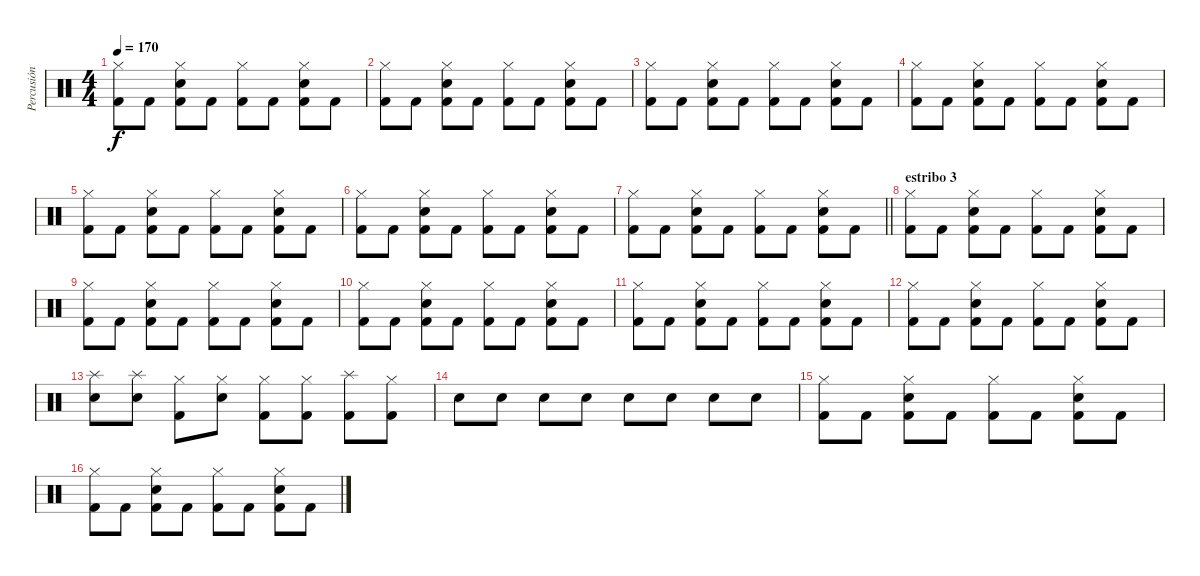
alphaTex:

\track ("Percusión" "Percusión") {instrument percussion}
\staff {score}
\articulation defaults
\ts (4 4)
\tempo 170
\clef neutral
\ks c
("Hi-Hat (closed)" "Kick (hit) 2").8{dy f} "Kick (hit) 2".8 ("Hi-Hat (closed)" "Electric Snare (hit)" "Kick (hit) 2").8 "Kick (hit) 2".8 ("Hi-Hat (closed)" "Kick (hit) 2").8 "Kick (hit) 2".8 ("Hi-Hat (closed)" "Electric Snare (hit)" "Kick (hit) 2").8 "Kick (hit) 2".8 |
("Hi-Hat (closed)" "Kick (hit) 2").8 "Kick (hit) 2".8 ("Hi-Hat (closed)" "Electric Snare (hit)" "Kick (hit) 2").8 "Kick (hit) 2".8 ("Hi-Hat (closed)" "Kick (hit) 2").8 "Kick (hit) 2".8 ("Hi-Hat (closed)" "Electric Snare (hit)" "Kick (hit) 2").8 "Kick (hit) 2".8 |
("Hi-Hat (closed)" "Kick (hit) 2").8 "Kick (hit) 2".8 ("Hi-Hat (closed)" "Electric Snare (hit)" "Kick (hit) 2").8 "Kick (hit) 2".8 ("Hi-Hat (closed)" "Kick (hit) 2").8 "Kick (hit) 2".8 ("Hi-Hat (closed)" "Electric Snare (hit)" "Kick (hit) 2").8 "Kick (hit) 2".8 |
("Hi-Hat (closed)" "Kick (hit) 2").8 "Kick (hit) 2".8 ("Hi-Hat (closed)" "Electric Snare (hit)" "Kick (hit) 2").8 "Kick (hit) 2".8 ("Hi-Hat (closed)" "Kick (hit) 2").8 "Kick (hit) 2".8 ("Hi-Hat (closed)" "Electric Snare (hit)" "Kick (hit) 2").8 "Kick (hit) 2".8 |
("Hi-Hat (closed)" "Kick (hit) 2").8 "Kick (hit) 2".8 ("Hi-Hat (closed)" "Electric Snare (hit)" "Kick (hit) 2").8 "Kick (hit) 2".8 ("Hi-Hat (closed)" "Kick (hit) 2").8 "Kick (hit) 2".8 ("Hi-Hat (closed)" "Electric Snare (hit)" "Kick (hit) 2").8 "Kick (hit) 2".8 |
("Hi-Hat (closed)" "Kick (hit) 2").8 "Kick (hit) 2".8 ("Hi-Hat (closed)" "Electric Snare (hit)" "Kick (hit) 2").8 "Kick (hit) 2".8 ("Hi-Hat (closed)" "Kick (hit) 2").8 "Kick (hit) 2".8 ("Hi-Hat (closed)" "Electric Snare (hit)" "Kick (hit) 2").8 "Kick (hit) 2".8 |
\barLineRight lightlight
("Hi-Hat (closed)" "Kick (hit) 2").8 "Kick (hit) 2".8 ("Hi-Hat (closed)" "Electric Snare (hit)" "Kick (hit) 2").8 "Kick (hit) 2".8 ("Hi-Hat (closed)" "Kick (hit) 2").8 "Kick (hit) 2".8 ("Hi-Hat (closed)" "Electric Snare (hit)" "Kick (hit) 2").8 "Kick (hit) 2".8 |
\section ("" "estribo 3")
("Hi-Hat (closed)" "Kick (hit) 2").8 "Kick (hit) 2".8 ("Hi-Hat (closed)" "Electric Snare (hit)" "Kick (hit) 2").8 "Kick (hit) 2".8 ("Hi-Hat (closed)" "Kick (hit) 2").8 "Kick (hit) 2".8 ("Hi-Hat (closed)" "Electric Snare (hit)" "Kick (hit) 2").8 "Kick (hit) 2".8 |
("Hi-Hat (closed)" "Kick (hit) 2").8 "Kick (hit) 2".8 ("Hi-Hat (closed)" "Electric Snare (hit)" "Kick (hit) 2").8 "Kick (hit) 2".8 ("Hi-Hat (closed)" "Kick (hit) 2").8 "Kick (hit) 2".8 ("Hi-Hat (closed)" "Electric Snare (hit)" "Kick (hit) 2").8 "Kick (hit) 2".8 |
("Hi-Hat (closed)" "Kick (hit) 2").8 "Kick (hit) 2".8 ("Hi-Hat (closed)" "Electric Snare (hit)" "Kick (hit) 2").8 "Kick (hit) 2".8 ("Hi-Hat (closed)" "Kick (hit) 2").8 "Kick (hit) 2".8 ("Hi-Hat (closed)" "Electric Snare (hit)" "Kick (hit) 2").8 "Kick (hit) 2".8 |
("Hi-Hat (closed)" "Kick (hit) 2").8 "Kick (hit) 2".8 ("Hi-Hat (closed)" "Electric Snare (hit)" "Kick (hit) 2").8 "Kick (hit) 2".8 ("Hi-Hat (closed)" "Kick (hit) 2").8 "Kick (hit) 2".8 ("Hi-Hat (closed)" "Electric Snare (hit)" "Kick (hit) 2").8 "Kick (hit) 2".8 |
("Hi-Hat (closed)" "Kick (hit) 2").8 "Kick (hit) 2".8 ("Hi-Hat (closed)" "Electric Snare (hit)" "Kick (hit) 2").8 "Kick (hit) 2".8 ("Hi-Hat (closed)" "Kick (hit) 2").8 "Kick (hit) 2".8 ("Hi-Hat (closed)" "Electric Snare (hit)" "Kick (hit) 2").8 "Kick (hit) 2".8 |
("Splash (hit)" "Electric Snare (hit)").8 ("Splash (hit)" "Electric Snare (hit)").8 ("Hi-Hat (closed)" "Kick (hit) 2").8 ("Hi-Hat (closed)" "Electric Snare (hit)").8 ("Hi-Hat (closed)" "Kick (hit) 2").8 ("Hi-Hat (closed)" "Kick (hit) 2").8 ("Splash (hit)" "Kick (hit) 2").8 ("Hi-Hat (closed)" "Kick (hit) 2").8 |
"Electric Snare (hit)".8 "Electric Snare (hit)".8 "Electric Snare (hit)".8 "Electric Snare (hit)".8 "Electric Snare (hit)".8 "Electric Snare (hit)".8 "Electric Snare (hit)".8 "Electric Snare (hit)".8 |
("Hi-Hat (closed)" "Kick (hit) 2").8 "Kick (hit) 2".8 ("Hi-Hat (closed)" "Electric Snare (hit)" "Kick (hit) 2").8 "Kick (hit) 2".8 ("Hi-Hat (closed)" "Kick (hit) 2").8 "Kick (hit) 2".8 ("Hi-Hat (closed)" "Electric Snare (hit)" "Kick (hit) 2").8 "Kick (hit) 2".8 |
("Hi-Hat (closed)" "Kick (hit) 2").8 "Kick (hit) 2".8 ("Hi-Hat (closed)" "Electric Snare (hit)" "Kick (hit) 2").8 "Kick (hit) 2".8 ("Hi-Hat (closed)" "Kick (hit) 2").8 "Kick (hit) 2".8 ("Hi-Hat (closed)" "Electric Snare (hit)" "Kick (hit) 2").8 "Kick (hit) 2".8
